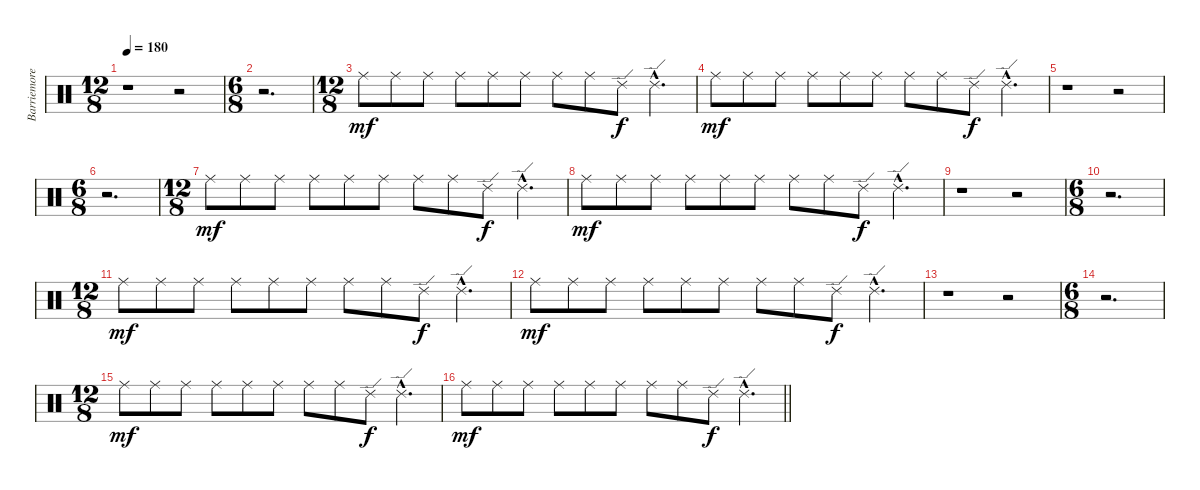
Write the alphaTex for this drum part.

\track ("Barriemore Barlow (drums)" "Barriemore") {instrument percussion}
\staff {score}
\articulation defaults
\ts (12 8)
\tempo 180
\clef neutral
\ks c
r.1{dy f} r.2 |
\ts (6 8)
r.2{d} |
\ts (12 8)
"Ride (middle)".8{dy mf} "Ride (middle)".8 "Ride (middle)".8 "Ride (middle)".8 "Ride (middle)".8 "Ride (middle)".8 "Ride (middle)".8 "Ride (middle)".8 "Ride (edge) 2".8{dy f} "Ride (edge) 2"{hac}.4{d} |
"Ride (middle)".8{dy mf} "Ride (middle)".8 "Ride (middle)".8 "Ride (middle)".8 "Ride (middle)".8 "Ride (middle)".8 "Ride (middle)".8 "Ride (middle)".8 "Ride (edge) 2".8{dy f} "Ride (edge) 2"{hac}.4{d} |
r.1 r.2 |
\ts (6 8)
r.2{d} |
\ts (12 8)
"Ride (middle)".8{dy mf} "Ride (middle)".8 "Ride (middle)".8 "Ride (middle)".8 "Ride (middle)".8 "Ride (middle)".8 "Ride (middle)".8 "Ride (middle)".8 "Ride (edge) 2".8{dy f} "Ride (edge) 2"{hac}.4{d} |
"Ride (middle)".8{dy mf} "Ride (middle)".8 "Ride (middle)".8 "Ride (middle)".8 "Ride (middle)".8 "Ride (middle)".8 "Ride (middle)".8 "Ride (middle)".8 "Ride (edge) 2".8{dy f} "Ride (edge) 2"{hac}.4{d} |
r.1 r.2 |
\ts (6 8)
r.2{d} |
\ts (12 8)
"Ride (middle)".8{dy mf} "Ride (middle)".8 "Ride (middle)".8 "Ride (middle)".8 "Ride (middle)".8 "Ride (middle)".8 "Ride (middle)".8 "Ride (middle)".8 "Ride (edge) 2".8{dy f} "Ride (edge) 2"{hac}.4{d} |
"Ride (middle)".8{dy mf} "Ride (middle)".8 "Ride (middle)".8 "Ride (middle)".8 "Ride (middle)".8 "Ride (middle)".8 "Ride (middle)".8 "Ride (middle)".8 "Ride (edge) 2".8{dy f} "Ride (edge) 2"{hac}.4{d} |
r.1 r.2 |
\ts (6 8)
r.2{d} |
\ts (12 8)
"Ride (middle)".8{dy mf} "Ride (middle)".8 "Ride (middle)".8 "Ride (middle)".8 "Ride (middle)".8 "Ride (middle)".8 "Ride (middle)".8 "Ride (middle)".8 "Ride (edge) 2".8{dy f} "Ride (edge) 2"{hac}.4{d} |
\barLineRight lightlight "Ride (middle)".8{dy mf} "Ride (middle)".8 "Ride (middle)".8 "Ride (middle)".8 "Ride (middle)".8 "Ride (middle)".8 "Ride (middle)".8 "Ride (middle)".8 "Ride (edge) 2".8{dy f} "Ride (edge) 2"{hac}.4{d}
